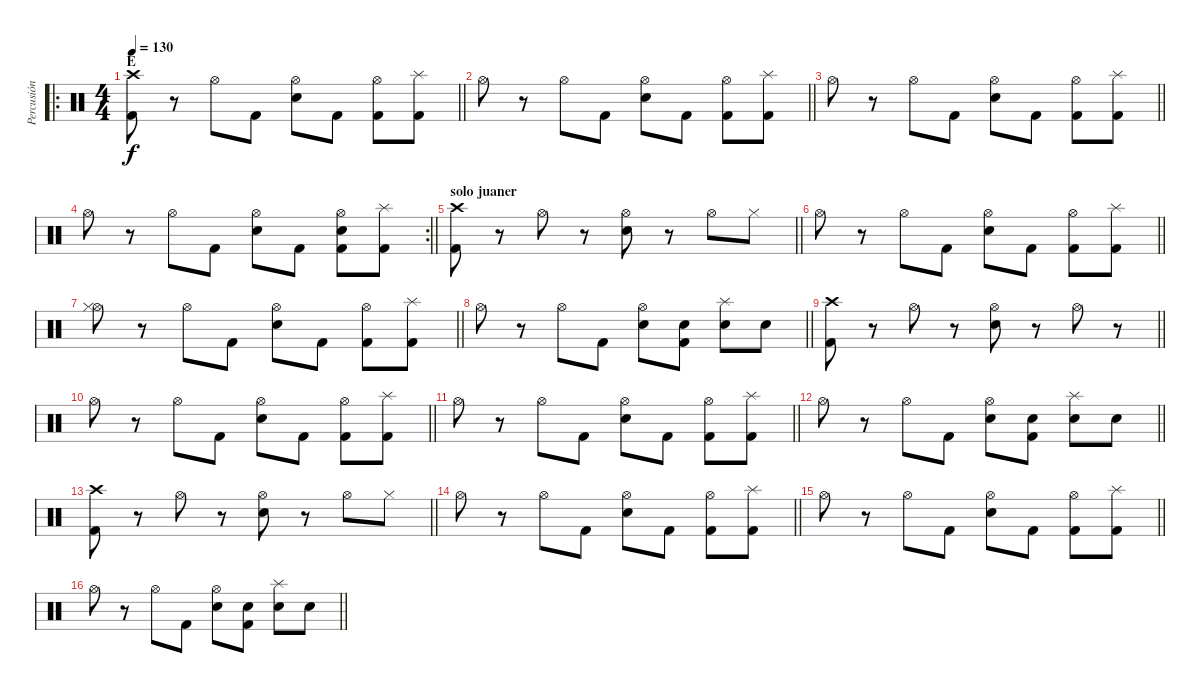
\track ("Percusión" "Percusión") {mute instrument percussion}
\staff {score}
\articulation defaults
\ro
\ts (4 4)
\section ("" "E")
\tempo 130
\clef neutral
\barLineRight lightlight
\ks c
("Kick (hit) 2" "Crash high (hit)").8{dy f} r.8 "Hi-Hat (open)".8 "Kick (hit) 2".8 ("Electric Snare (hit)" "Hi-Hat (open)").8 "Kick (hit) 2".8 ("Hi-Hat (open)" "Kick (hit) 2").8 ("Splash (hit)" "Kick (hit) 2").8 |
\barLineRight lightlight "Hi-Hat (open)".8
r.8 "Hi-Hat (open)".8 "Kick (hit) 2".8 ("Electric Snare (hit)" "Hi-Hat (open)").8 "Kick (hit) 2".8 ("Hi-Hat (open)" "Kick (hit) 2").8 ("Splash (hit)" "Kick (hit) 2").8 |
\barLineRight lightlight "Hi-Hat (open)".8
r.8 "Hi-Hat (open)".8 "Kick (hit) 2".8 ("Electric Snare (hit)" "Hi-Hat (open)").8 "Kick (hit) 2".8 ("Hi-Hat (open)" "Kick (hit) 2").8 ("Splash (hit)" "Kick (hit) 2").8 |
\rc 2
\barLineRight lightlight "Hi-Hat (open)".8
r.8 "Hi-Hat (open)".8 "Kick (hit) 2".8 ("Electric Snare (hit)" "Hi-Hat (open)").8 "Kick (hit) 2".8 ("Hi-Hat (open)" "Kick (hit) 2" "Electric Snare (hit)").8 ("Splash (hit)" "Kick (hit) 2").8 |
\section ("" "solo juaner")
\barLineRight lightlight
("Kick (hit) 2" "Crash high (hit)").8 r.8 "Hi-Hat (open)".8 r.8 ("Electric Snare (hit)" "Hi-Hat (open)").8 r.8 "Hi-Hat (open)".8 "Hi-Hat (closed)".8 |
\barLineRight lightlight "Hi-Hat (open)".8
r.8 "Hi-Hat (open)".8 "Kick (hit) 2".8 ("Electric Snare (hit)" "Hi-Hat (open)").8 "Kick (hit) 2".8 ("Hi-Hat (open)" "Kick (hit) 2").8 ("Splash (hit)" "Kick (hit) 2").8 |
\barLineRight lightlight
("Hi-Hat (open)" "Hi-Hat (closed)").8 r.8 "Hi-Hat (open)".8 "Kick (hit) 2".8 ("Electric Snare (hit)" "Hi-Hat (open)").8 "Kick (hit) 2".8 ("Hi-Hat (open)" "Kick (hit) 2").8 ("Splash (hit)" "Kick (hit) 2").8 |
\barLineRight lightlight "Hi-Hat (open)".8
r.8 "Hi-Hat (open)".8 "Kick (hit) 2".8 ("Electric Snare (hit)" "Hi-Hat (open)").8 ("Kick (hit) 2" "Electric Snare (hit)").8 ("Splash (hit)" "Electric Snare (hit)").8 "Electric Snare (hit)".8 |
\barLineRight lightlight
("Kick (hit) 2" "Crash high (hit)").8 r.8 "Hi-Hat (open)".8 r.8 ("Electric Snare (hit)" "Hi-Hat (open)").8 r.8 "Hi-Hat (open)".8 r.8 |
\barLineRight lightlight "Hi-Hat (open)".8
r.8 "Hi-Hat (open)".8 "Kick (hit) 2".8 ("Electric Snare (hit)" "Hi-Hat (open)").8 "Kick (hit) 2".8 ("Hi-Hat (open)" "Kick (hit) 2").8 ("Splash (hit)" "Kick (hit) 2").8 |
\barLineRight lightlight "Hi-Hat (open)".8
r.8 "Hi-Hat (open)".8 "Kick (hit) 2".8 ("Electric Snare (hit)" "Hi-Hat (open)").8 "Kick (hit) 2".8 ("Hi-Hat (open)" "Kick (hit) 2").8 ("Splash (hit)" "Kick (hit) 2").8 |
\barLineRight lightlight "Hi-Hat (open)".8
r.8 "Hi-Hat (open)".8 "Kick (hit) 2".8 ("Electric Snare (hit)" "Hi-Hat (open)").8 ("Kick (hit) 2" "Electric Snare (hit)").8 ("Splash (hit)" "Electric Snare (hit)").8 "Electric Snare (hit)".8 |
\barLineRight lightlight
("Kick (hit) 2" "Crash high (hit)").8 r.8 "Hi-Hat (open)".8 r.8 ("Electric Snare (hit)" "Hi-Hat (open)").8 r.8 "Hi-Hat (open)".8 "Hi-Hat (closed)".8 |
\barLineRight lightlight "Hi-Hat (open)".8
r.8 "Hi-Hat (open)".8 "Kick (hit) 2".8 ("Electric Snare (hit)" "Hi-Hat (open)").8 "Kick (hit) 2".8 ("Hi-Hat (open)" "Kick (hit) 2").8 ("Splash (hit)" "Kick (hit) 2").8 |
\barLineRight lightlight "Hi-Hat (open)".8
r.8 "Hi-Hat (open)".8 "Kick (hit) 2".8 ("Electric Snare (hit)" "Hi-Hat (open)").8 "Kick (hit) 2".8 ("Hi-Hat (open)" "Kick (hit) 2").8 ("Splash (hit)" "Kick (hit) 2").8 |
\barLineRight lightlight "Hi-Hat (open)".8
r.8 "Hi-Hat (open)".8 "Kick (hit) 2".8 ("Electric Snare (hit)" "Hi-Hat (open)").8 ("Kick (hit) 2" "Electric Snare (hit)").8 ("Splash (hit)" "Electric Snare (hit)").8 "Electric Snare (hit)".8
